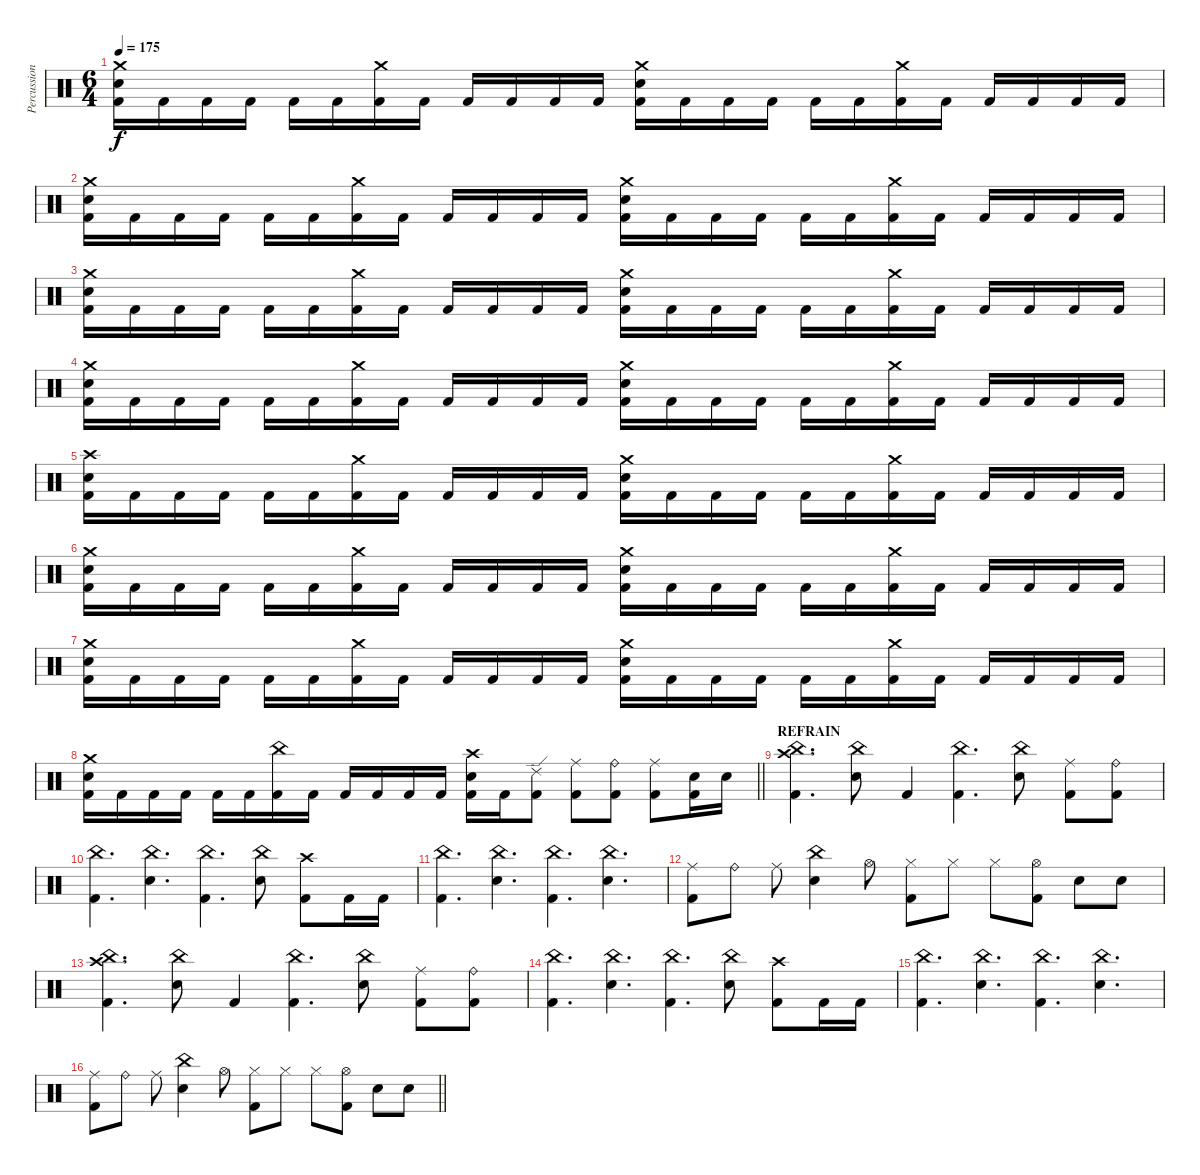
\track ("Percussions" "Percussion") {instrument percussion}
\staff {score}
\articulation defaults
\ts (6 4)
\tempo 175
\clef neutral
\ks c
("Crash medium (hit)" "Electric Snare (hit)" "Kick (hit) 2").16{dy f} "Kick (hit) 2".16 "Kick (hit) 2".16 "Kick (hit) 2".16 "Kick (hit) 2".16 "Kick (hit) 2".16 ("Crash medium (hit)" "Kick (hit) 2").16 "Kick (hit) 2".16 "Kick (hit) 2".16 "Kick (hit) 2".16 "Kick (hit) 2".16 "Kick (hit) 2".16 ("Crash medium (hit)" "Electric Snare (hit)" "Kick (hit) 2").16 "Kick (hit) 2".16 "Kick (hit) 2".16 "Kick (hit) 2".16 "Kick (hit) 2".16 "Kick (hit) 2".16 ("Crash medium (hit)" "Kick (hit) 2").16 "Kick (hit) 2".16 "Kick (hit) 2".16 "Kick (hit) 2".16 "Kick (hit) 2".16 "Kick (hit) 2".16 |
("Crash medium (hit)" "Electric Snare (hit)" "Kick (hit) 2").16 "Kick (hit) 2".16 "Kick (hit) 2".16 "Kick (hit) 2".16 "Kick (hit) 2".16 "Kick (hit) 2".16 ("Crash medium (hit)" "Kick (hit) 2").16 "Kick (hit) 2".16 "Kick (hit) 2".16 "Kick (hit) 2".16 "Kick (hit) 2".16 "Kick (hit) 2".16 ("Crash medium (hit)" "Electric Snare (hit)" "Kick (hit) 2").16 "Kick (hit) 2".16 "Kick (hit) 2".16 "Kick (hit) 2".16 "Kick (hit) 2".16 "Kick (hit) 2".16 ("Crash medium (hit)" "Kick (hit) 2").16 "Kick (hit) 2".16 "Kick (hit) 2".16 "Kick (hit) 2".16 "Kick (hit) 2".16 "Kick (hit) 2".16 |
("Crash medium (hit)" "Electric Snare (hit)" "Kick (hit) 2").16 "Kick (hit) 2".16 "Kick (hit) 2".16 "Kick (hit) 2".16 "Kick (hit) 2".16 "Kick (hit) 2".16 ("Crash medium (hit)" "Kick (hit) 2").16 "Kick (hit) 2".16 "Kick (hit) 2".16 "Kick (hit) 2".16 "Kick (hit) 2".16 "Kick (hit) 2".16 ("Crash medium (hit)" "Electric Snare (hit)" "Kick (hit) 2").16 "Kick (hit) 2".16 "Kick (hit) 2".16 "Kick (hit) 2".16 "Kick (hit) 2".16 "Kick (hit) 2".16 ("Crash medium (hit)" "Kick (hit) 2").16 "Kick (hit) 2".16 "Kick (hit) 2".16 "Kick (hit) 2".16 "Kick (hit) 2".16 "Kick (hit) 2".16 |
("Crash medium (hit)" "Electric Snare (hit)" "Kick (hit) 2").16 "Kick (hit) 2".16 "Kick (hit) 2".16 "Kick (hit) 2".16 "Kick (hit) 2".16 "Kick (hit) 2".16 ("Crash medium (hit)" "Kick (hit) 2").16 "Kick (hit) 2".16 "Kick (hit) 2".16 "Kick (hit) 2".16 "Kick (hit) 2".16 "Kick (hit) 2".16 ("Crash medium (hit)" "Electric Snare (hit)" "Kick (hit) 2").16 "Kick (hit) 2".16 "Kick (hit) 2".16 "Kick (hit) 2".16 "Kick (hit) 2".16 "Kick (hit) 2".16 ("Crash medium (hit)" "Kick (hit) 2").16 "Kick (hit) 2".16 "Kick (hit) 2".16 "Kick (hit) 2".16 "Kick (hit) 2".16 "Kick (hit) 2".16 |
("Crash high (hit)" "Electric Snare (hit)" "Kick (hit) 2").16 "Kick (hit) 2".16 "Kick (hit) 2".16 "Kick (hit) 2".16 "Kick (hit) 2".16 "Kick (hit) 2".16 ("Crash medium (hit)" "Kick (hit) 2").16 "Kick (hit) 2".16 "Kick (hit) 2".16 "Kick (hit) 2".16 "Kick (hit) 2".16 "Kick (hit) 2".16 ("Crash medium (hit)" "Electric Snare (hit)" "Kick (hit) 2").16 "Kick (hit) 2".16 "Kick (hit) 2".16 "Kick (hit) 2".16 "Kick (hit) 2".16 "Kick (hit) 2".16 ("Crash medium (hit)" "Kick (hit) 2").16 "Kick (hit) 2".16 "Kick (hit) 2".16 "Kick (hit) 2".16 "Kick (hit) 2".16 "Kick (hit) 2".16 |
("Crash medium (hit)" "Electric Snare (hit)" "Kick (hit) 2").16 "Kick (hit) 2".16 "Kick (hit) 2".16 "Kick (hit) 2".16 "Kick (hit) 2".16 "Kick (hit) 2".16 ("Crash medium (hit)" "Kick (hit) 2").16 "Kick (hit) 2".16 "Kick (hit) 2".16 "Kick (hit) 2".16 "Kick (hit) 2".16 "Kick (hit) 2".16 ("Crash medium (hit)" "Electric Snare (hit)" "Kick (hit) 2").16 "Kick (hit) 2".16 "Kick (hit) 2".16 "Kick (hit) 2".16 "Kick (hit) 2".16 "Kick (hit) 2".16 ("Crash medium (hit)" "Kick (hit) 2").16 "Kick (hit) 2".16 "Kick (hit) 2".16 "Kick (hit) 2".16 "Kick (hit) 2".16 "Kick (hit) 2".16 |
("Crash medium (hit)" "Electric Snare (hit)" "Kick (hit) 2").16 "Kick (hit) 2".16 "Kick (hit) 2".16 "Kick (hit) 2".16 "Kick (hit) 2".16 "Kick (hit) 2".16 ("Crash medium (hit)" "Kick (hit) 2").16 "Kick (hit) 2".16 "Kick (hit) 2".16 "Kick (hit) 2".16 "Kick (hit) 2".16 "Kick (hit) 2".16 ("Crash medium (hit)" "Electric Snare (hit)" "Kick (hit) 2").16 "Kick (hit) 2".16 "Kick (hit) 2".16 "Kick (hit) 2".16 "Kick (hit) 2".16 "Kick (hit) 2".16 ("Crash medium (hit)" "Kick (hit) 2").16 "Kick (hit) 2".16 "Kick (hit) 2".16 "Kick (hit) 2".16 "Kick (hit) 2".16 "Kick (hit) 2".16 |
\barLineRight lightlight
("Crash medium (hit)" "Electric Snare (hit)" "Kick (hit) 2").16 "Kick (hit) 2".16 "Kick (hit) 2".16 "Kick (hit) 2".16 "Kick (hit) 2".16 "Kick (hit) 2".16 ("China (hit)" "Kick (hit) 2").16 "Kick (hit) 2".16 "Kick (hit) 2".16 "Kick (hit) 2".16 "Kick (hit) 2".16 "Kick (hit) 2".16 ("Crash high (hit)" "Electric Snare (hit)" "Kick (hit) 2").16 "Kick (hit) 2".16 ("Ride (edge) 2" "Kick (hit) 2").8 ("Ride (middle)" "Kick (hit) 2").8 ("Ride (bell)" "Kick (hit) 2").8 ("Ride (middle)" "Kick (hit) 2").8 ("Electric Snare (hit)" "Kick (hit) 2").16 "Electric Snare (hit)".16 |
\section ("" "REFRAIN")
("China (hit)" "Crash high (hit)" "Kick (hit) 2").4{d} ("China (hit)" "Electric Snare (hit)").8 "Kick (hit) 2".4 ("China (hit)" "Kick (hit) 2").4{d} ("China (hit)" "Electric Snare (hit)").8 ("Ride (middle)" "Kick (hit) 2").8 ("Ride (bell)" "Kick (hit) 2").8 |
("China (hit)" "Kick (hit) 2").4{d} ("China (hit)" "Electric Snare (hit)").4{d} ("China (hit)" "Kick (hit) 2").4{d} ("China (hit)" "Electric Snare (hit)").8 ("Crash high (hit)" "Kick (hit) 2").8 "Kick (hit) 2".16 "Kick (hit) 2".16 |
("China (hit)" "Kick (hit) 2").4{d} ("China (hit)" "Electric Snare (hit)").4{d} ("China (hit)" "Kick (hit) 2").4{d} ("China (hit)" "Electric Snare (hit)").4{d} |
("Ride (middle)" "Kick (hit) 2").8 "Ride (bell)".8 "Ride (middle)".8 ("China (hit)" "Electric Snare (hit)").4 "Hi-Hat (open)".8 ("Hi-Hat (closed)" "Kick (hit) 2").8 "Hi-Hat (closed)".8 "Hi-Hat (closed)".8 ("Hi-Hat (open)" "Kick (hit) 2").8 "Electric Snare (hit)".8 "Electric Snare (hit)".8 |
("China (hit)" "Crash high (hit)" "Kick (hit) 2").4{d} ("China (hit)" "Electric Snare (hit)").8 "Kick (hit) 2".4 ("China (hit)" "Kick (hit) 2").4{d} ("China (hit)" "Electric Snare (hit)").8 ("Ride (middle)" "Kick (hit) 2").8 ("Ride (bell)" "Kick (hit) 2").8 |
("China (hit)" "Kick (hit) 2").4{d} ("China (hit)" "Electric Snare (hit)").4{d} ("China (hit)" "Kick (hit) 2").4{d} ("China (hit)" "Electric Snare (hit)").8 ("Crash high (hit)" "Kick (hit) 2").8 "Kick (hit) 2".16 "Kick (hit) 2".16 |
("China (hit)" "Kick (hit) 2").4{d} ("China (hit)" "Electric Snare (hit)").4{d} ("China (hit)" "Kick (hit) 2").4{d} ("China (hit)" "Electric Snare (hit)").4{d} |
\barLineRight lightlight
("Ride (middle)" "Kick (hit) 2").8 "Ride (bell)".8 "Ride (middle)".8 ("China (hit)" "Electric Snare (hit)").4 "Hi-Hat (open)".8 ("Hi-Hat (closed)" "Kick (hit) 2").8 "Hi-Hat (closed)".8 "Hi-Hat (closed)".8 ("Hi-Hat (open)" "Kick (hit) 2").8 "Electric Snare (hit)".8 "Electric Snare (hit)".8
